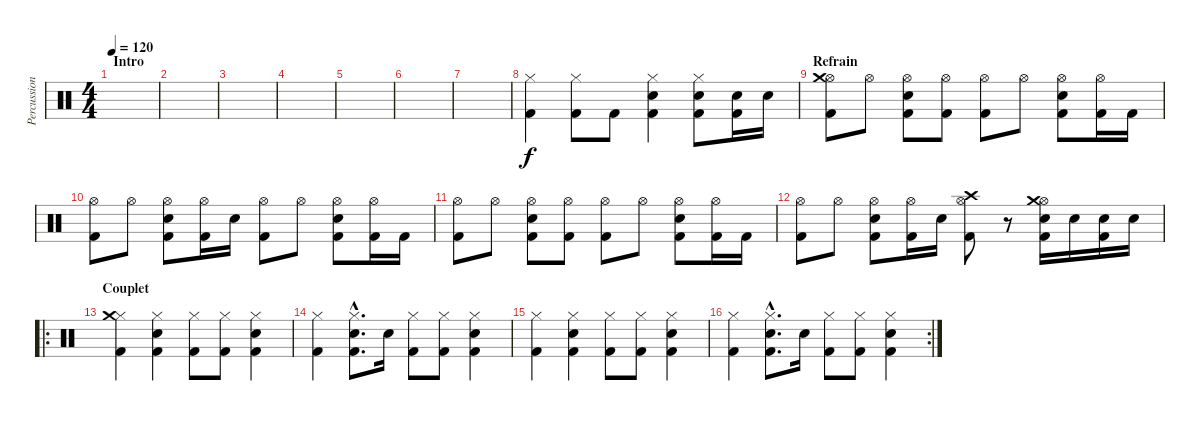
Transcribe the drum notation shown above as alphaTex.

\track ("Percussions" "Percussion") {instrument percussion}
\staff {score}
\articulation defaults
\ts (4 4)
\section ("" "Intro")
\tempo 120
\clef neutral
\ks c
|
|
|
|
|
|
|
("Hi-Hat (closed)" "Kick (hit) 2").4 ("Hi-Hat (closed)" "Kick (hit) 2").8 "Kick (hit) 2".8 ("Hi-Hat (closed)" "Snare (hit) 2" "Kick (hit) 2").4 ("Hi-Hat (closed)" "Snare (hit) 2" "Kick (hit) 2").8 ("Snare (hit) 2" "Kick (hit) 2").16 "Snare (hit) 2".16 |
\section ("" "Refrain")
("Hi-Hat (open)" "Crash medium (hit)" "Kick (hit) 2").8 "Hi-Hat (open)".8 ("Hi-Hat (open)" "Snare (hit) 2" "Kick (hit) 2").8 ("Hi-Hat (open)" "Kick (hit) 2").8 ("Hi-Hat (open)" "Kick (hit) 2").8 "Hi-Hat (open)".8 ("Hi-Hat (open)" "Snare (hit) 2" "Kick (hit) 2").8 ("Hi-Hat (open)" "Kick (hit) 2").16 "Kick (hit) 2".16 |
("Hi-Hat (open)" "Kick (hit) 2").8 "Hi-Hat (open)".8 ("Hi-Hat (open)" "Snare (hit) 2" "Kick (hit) 2").8 ("Hi-Hat (open)" "Kick (hit) 2").16 "Snare (hit) 2".16 ("Hi-Hat (open)" "Kick (hit) 2").8 "Hi-Hat (open)".8 ("Hi-Hat (open)" "Snare (hit) 2" "Kick (hit) 2").8 ("Hi-Hat (open)" "Kick (hit) 2").16 "Kick (hit) 2".16 |
("Hi-Hat (open)" "Kick (hit) 2").8 "Hi-Hat (open)".8 ("Hi-Hat (open)" "Snare (hit) 2" "Kick (hit) 2").8 ("Hi-Hat (open)" "Kick (hit) 2").8 ("Hi-Hat (open)" "Kick (hit) 2").8 "Hi-Hat (open)".8 ("Hi-Hat (open)" "Snare (hit) 2" "Kick (hit) 2").8 ("Hi-Hat (open)" "Kick (hit) 2").16 "Kick (hit) 2".16 |
("Hi-Hat (open)" "Kick (hit) 2").8 "Hi-Hat (open)".8 ("Hi-Hat (open)" "Snare (hit) 2" "Kick (hit) 2").8 ("Hi-Hat (open)" "Kick (hit) 2").16 "Snare (hit) 2".16 ("Hi-Hat (open)" "Crash high (hit)" "Kick (hit) 2").8 r.8 ("Hi-Hat (open)" "Snare (hit) 2" "Crash medium (hit)" "Kick (hit) 2").16 "Snare (hit) 2".16 ("Snare (hit) 2" "Kick (hit) 2").16 "Snare (hit) 2".16 |
\ro
\section ("" "Couplet")
("Hi-Hat (closed)" "Crash medium (hit)" "Kick (hit) 2").4 ("Hi-Hat (closed)" "Snare (hit) 2" "Kick (hit) 2").4 ("Hi-Hat (closed)" "Kick (hit) 2").8 ("Hi-Hat (closed)" "Kick (hit) 2").8 ("Hi-Hat (closed)" "Snare (hit) 2" "Kick (hit) 2").4 |
("Hi-Hat (closed)" "Kick (hit) 2").4 ("Hi-Hat (closed)"{hac} "Snare (hit) 2"{hac} "Kick (hit) 2"{hac}).8{d} "Snare (hit) 2".16 ("Hi-Hat (closed)" "Kick (hit) 2").8 ("Hi-Hat (closed)" "Kick (hit) 2").8 ("Hi-Hat (closed)" "Snare (hit) 2" "Kick (hit) 2").4 |
("Hi-Hat (closed)" "Kick (hit) 2").4 ("Hi-Hat (closed)" "Snare (hit) 2" "Kick (hit) 2").4 ("Hi-Hat (closed)" "Kick (hit) 2").8 ("Hi-Hat (closed)" "Kick (hit) 2").8 ("Hi-Hat (closed)" "Snare (hit) 2" "Kick (hit) 2").4 |
\rc 2
("Hi-Hat (closed)" "Kick (hit) 2").4 ("Hi-Hat (closed)"{hac} "Snare (hit) 2"{hac} "Kick (hit) 2"{hac}).8{d} "Snare (hit) 2".16 ("Hi-Hat (closed)" "Kick (hit) 2").8 ("Hi-Hat (closed)" "Kick (hit) 2").8 ("Hi-Hat (closed)" "Snare (hit) 2" "Kick (hit) 2").4
